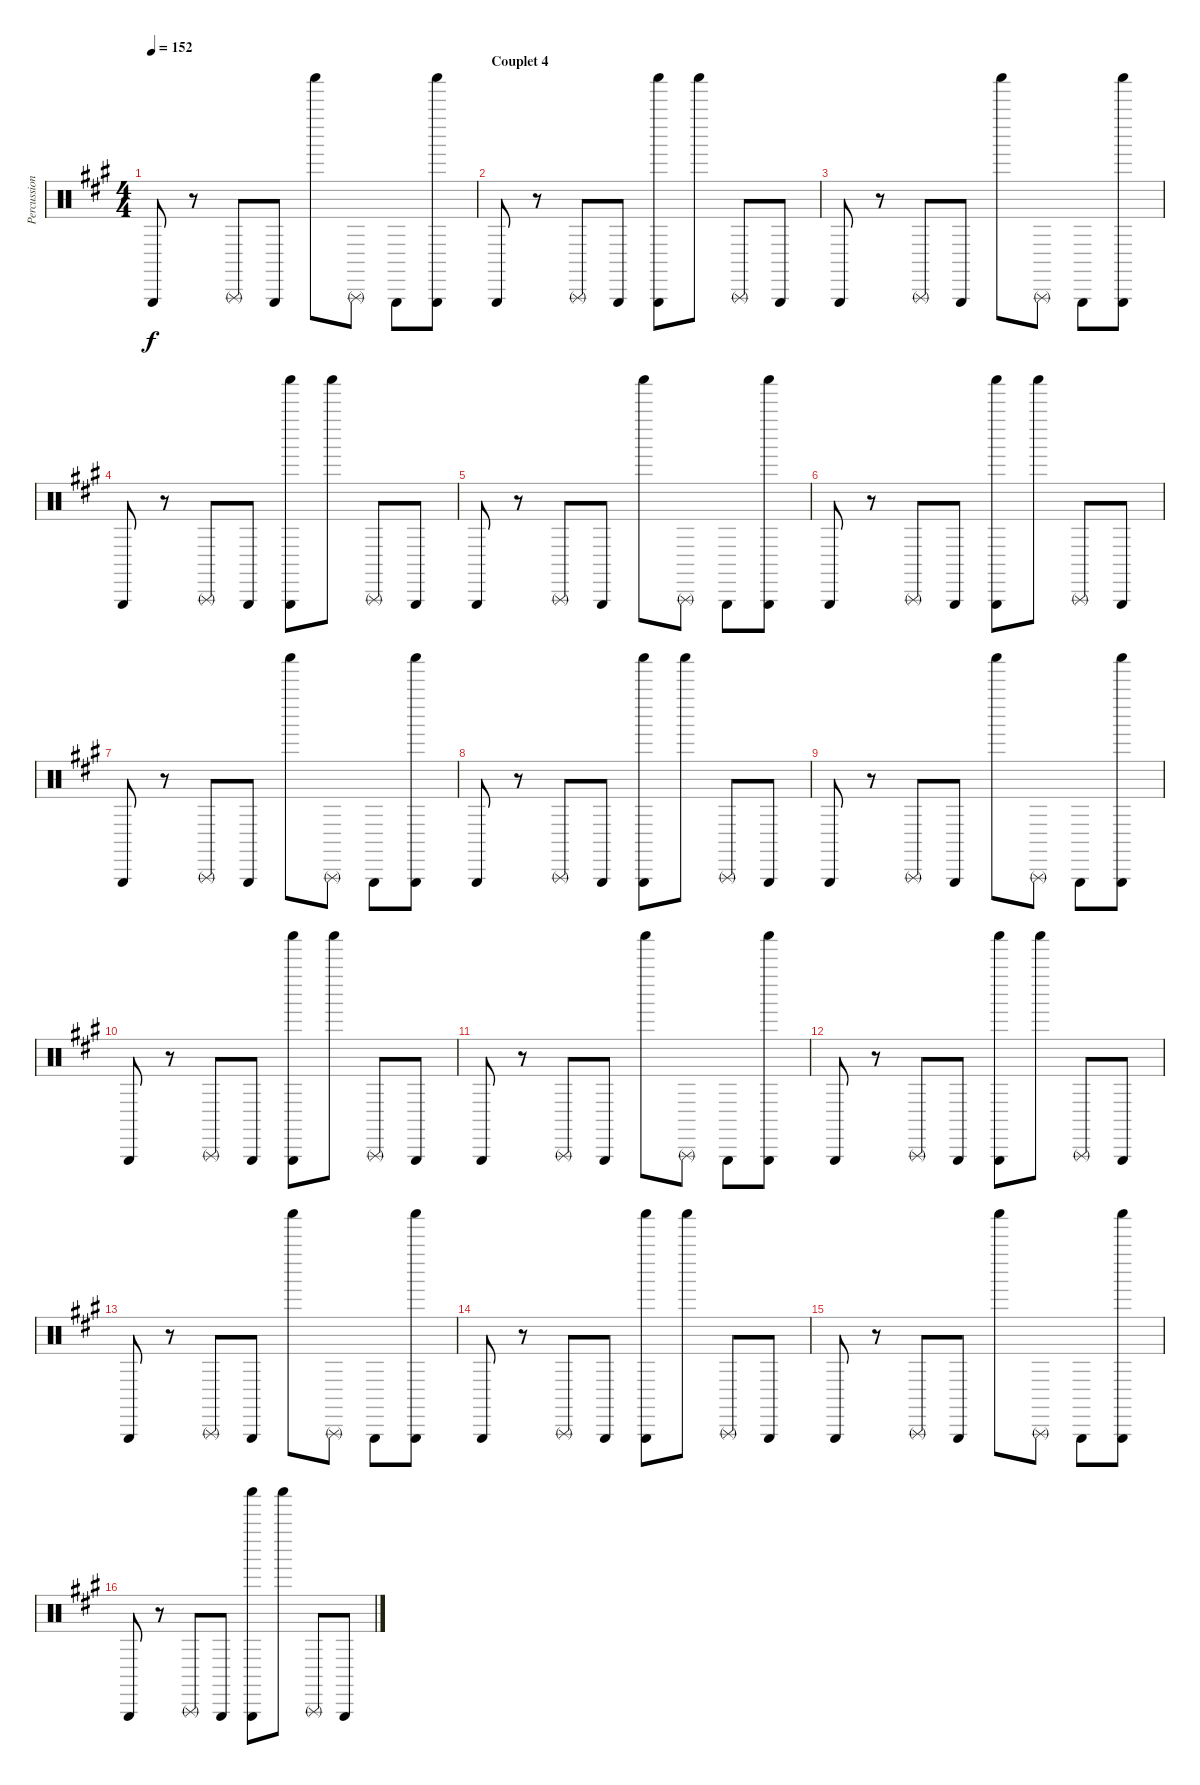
\track ("Percussions" "Percussion") {instrument percussion}
\staff {score}
\articulation defaults
\ts (4 4)
\tempo 152
\clef neutral
\ks a "Triangle (hit)".8{dy f}
r.8 "Triangle (rnute)".8 "Triangle (hit)".8 "Shaker (hit)".8 "Triangle (rnute)".8 "Triangle (hit)".8 ("Triangle (hit)" "Shaker (hit)").8 |
\section ("" "Couplet 4")
"Triangle (hit)".8 r.8 "Triangle (rnute)".8 "Triangle (hit)".8 ("Triangle (hit)" "Shaker (hit)").8 "Shaker (hit)".8 "Triangle (rnute)".8 "Triangle (hit)".8 |
"Triangle (hit)".8 r.8 "Triangle (rnute)".8 "Triangle (hit)".8 "Shaker (hit)".8 "Triangle (rnute)".8 "Triangle (hit)".8 ("Triangle (hit)" "Shaker (hit)").8 |
"Triangle (hit)".8 r.8 "Triangle (rnute)".8 "Triangle (hit)".8 ("Triangle (hit)" "Shaker (hit)").8 "Shaker (hit)".8 "Triangle (rnute)".8 "Triangle (hit)".8 |
"Triangle (hit)".8 r.8 "Triangle (rnute)".8 "Triangle (hit)".8 "Shaker (hit)".8 "Triangle (rnute)".8 "Triangle (hit)".8 ("Triangle (hit)" "Shaker (hit)").8 |
"Triangle (hit)".8 r.8 "Triangle (rnute)".8 "Triangle (hit)".8 ("Triangle (hit)" "Shaker (hit)").8 "Shaker (hit)".8 "Triangle (rnute)".8 "Triangle (hit)".8 |
"Triangle (hit)".8 r.8 "Triangle (rnute)".8 "Triangle (hit)".8 "Shaker (hit)".8 "Triangle (rnute)".8 "Triangle (hit)".8 ("Triangle (hit)" "Shaker (hit)").8 |
"Triangle (hit)".8 r.8 "Triangle (rnute)".8 "Triangle (hit)".8 ("Triangle (hit)" "Shaker (hit)").8 "Shaker (hit)".8 "Triangle (rnute)".8 "Triangle (hit)".8 |
"Triangle (hit)".8 r.8 "Triangle (rnute)".8 "Triangle (hit)".8 "Shaker (hit)".8 "Triangle (rnute)".8 "Triangle (hit)".8 ("Triangle (hit)" "Shaker (hit)").8 |
"Triangle (hit)".8 r.8 "Triangle (rnute)".8 "Triangle (hit)".8 ("Triangle (hit)" "Shaker (hit)").8 "Shaker (hit)".8 "Triangle (rnute)".8 "Triangle (hit)".8 |
"Triangle (hit)".8 r.8 "Triangle (rnute)".8 "Triangle (hit)".8 "Shaker (hit)".8 "Triangle (rnute)".8 "Triangle (hit)".8 ("Triangle (hit)" "Shaker (hit)").8 |
"Triangle (hit)".8 r.8 "Triangle (rnute)".8 "Triangle (hit)".8 ("Triangle (hit)" "Shaker (hit)").8 "Shaker (hit)".8 "Triangle (rnute)".8 "Triangle (hit)".8 |
"Triangle (hit)".8 r.8 "Triangle (rnute)".8 "Triangle (hit)".8 "Shaker (hit)".8 "Triangle (rnute)".8 "Triangle (hit)".8 ("Triangle (hit)" "Shaker (hit)").8 |
"Triangle (hit)".8 r.8 "Triangle (rnute)".8 "Triangle (hit)".8 ("Triangle (hit)" "Shaker (hit)").8 "Shaker (hit)".8 "Triangle (rnute)".8 "Triangle (hit)".8 |
"Triangle (hit)".8 r.8 "Triangle (rnute)".8 "Triangle (hit)".8 "Shaker (hit)".8 "Triangle (rnute)".8 "Triangle (hit)".8 ("Triangle (hit)" "Shaker (hit)").8 |
"Triangle (hit)".8 r.8 "Triangle (rnute)".8 "Triangle (hit)".8 ("Triangle (hit)" "Shaker (hit)").8 "Shaker (hit)".8 "Triangle (rnute)".8 "Triangle (hit)".8
